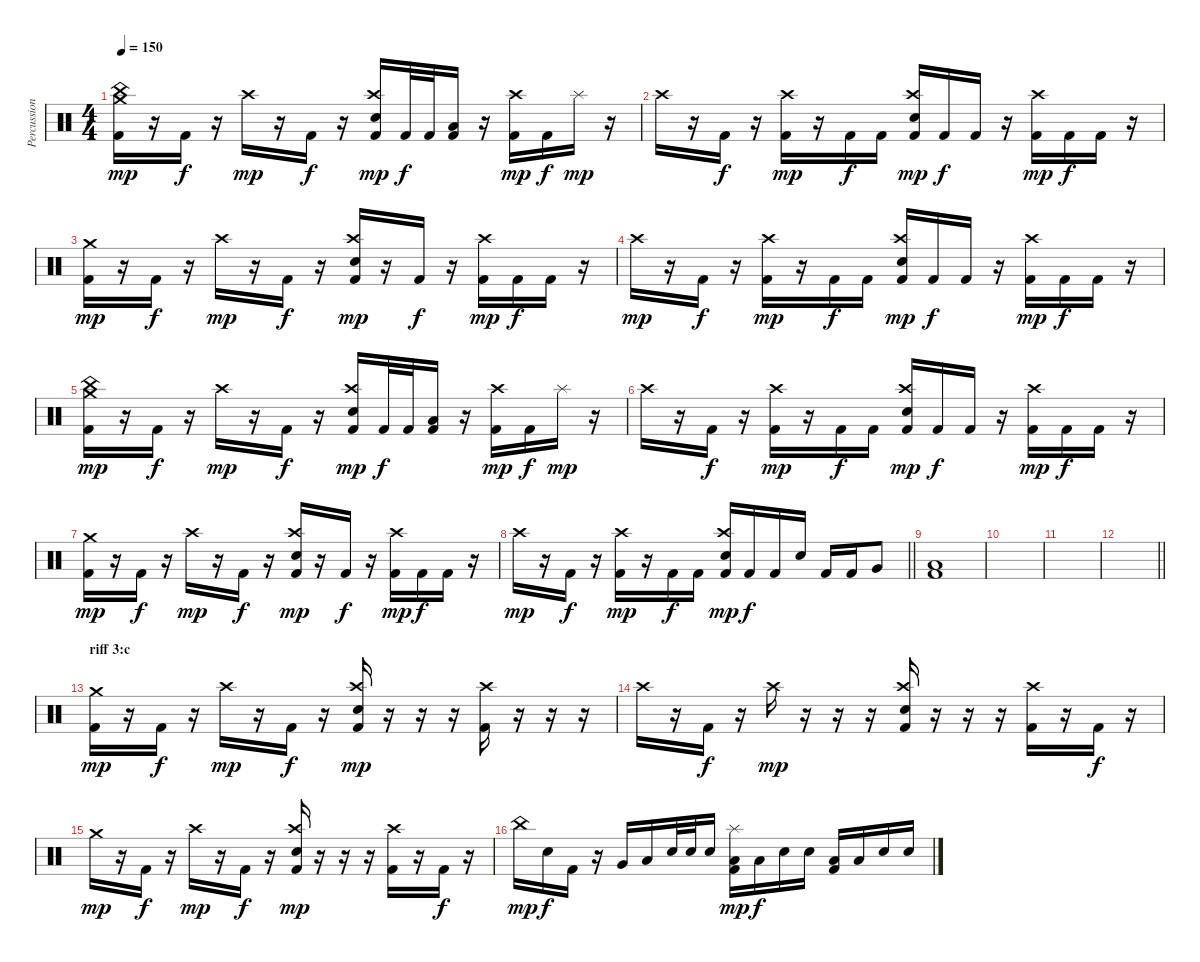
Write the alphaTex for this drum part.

\track ("Percussion" "Percussion") {instrument percussion}
\staff {score}
\articulation defaults
\ts (4 4)
\tempo 150
\clef neutral
\ks c
("Crash medium (hit)" "China (hit)" "Kick (hit) 2").16{dy mp} r.16 "Kick (hit) 2".16{dy f} r.16 "Crash high (hit)".16{dy mp} r.16 "Kick (hit) 2".16{dy f} r.16 ("Crash high (hit)" "Electric Snare (hit)" "Kick (hit) 2").16{dy mp} "Kick (hit) 2".32{dy f} "Kick (hit) 2".32 ("Low Floor Tom (hit)" "Kick (hit) 2").16 r.16 ("Crash high (hit)" "Kick (hit) 2").16{dy mp} "Kick (hit) 2".16{dy f} "Splash (hit)".16{dy mp} r.16 |
"Crash high (hit)".16 r.16 "Kick (hit) 2".16{dy f} r.16 ("Crash high (hit)" "Kick (hit) 2").16{dy mp} r.16 "Kick (hit) 2".16{dy f} "Kick (hit) 2".16 ("Crash high (hit)" "Electric Snare (hit)" "Kick (hit) 2").16{dy mp} "Kick (hit) 2".16{dy f} "Kick (hit) 2".16 r.16 ("Crash high (hit)" "Kick (hit) 2").16{dy mp} "Kick (hit) 2".16{dy f} "Kick (hit) 2".16 r.16 |
("Crash medium (hit)" "Kick (hit) 2").16{dy mp} r.16 "Kick (hit) 2".16{dy f} r.16 "Crash high (hit)".16{dy mp} r.16 "Kick (hit) 2".16{dy f} r.16 ("Crash high (hit)" "Electric Snare (hit)" "Kick (hit) 2").16{dy mp} r.16 "Kick (hit) 2".16{dy f} r.16 ("Crash high (hit)" "Kick (hit) 2").16{dy mp} "Kick (hit) 2".16{dy f} "Kick (hit) 2".16 r.16 |
"Crash high (hit)".16{dy mp} r.16 "Kick (hit) 2".16{dy f} r.16 ("Crash high (hit)" "Kick (hit) 2").16{dy mp} r.16 "Kick (hit) 2".16{dy f} "Kick (hit) 2".16 ("Crash high (hit)" "Electric Snare (hit)" "Kick (hit) 2").16{dy mp} "Kick (hit) 2".16{dy f} "Kick (hit) 2".16 r.16 ("Crash high (hit)" "Kick (hit) 2").16{dy mp} "Kick (hit) 2".16{dy f} "Kick (hit) 2".16 r.16 |
("Crash medium (hit)" "China (hit)" "Kick (hit) 2").16{dy mp} r.16 "Kick (hit) 2".16{dy f} r.16 "Crash high (hit)".16{dy mp} r.16 "Kick (hit) 2".16{dy f} r.16 ("Crash high (hit)" "Electric Snare (hit)" "Kick (hit) 2").16{dy mp} "Kick (hit) 2".32{dy f} "Kick (hit) 2".32 ("Low Floor Tom (hit)" "Kick (hit) 2").16 r.16 ("Crash high (hit)" "Kick (hit) 2").16{dy mp} "Kick (hit) 2".16{dy f} "Splash (hit)".16{dy mp} r.16 |
"Crash high (hit)".16 r.16 "Kick (hit) 2".16{dy f} r.16 ("Crash high (hit)" "Kick (hit) 2").16{dy mp} r.16 "Kick (hit) 2".16{dy f} "Kick (hit) 2".16 ("Crash high (hit)" "Electric Snare (hit)" "Kick (hit) 2").16{dy mp} "Kick (hit) 2".16{dy f} "Kick (hit) 2".16 r.16 ("Crash high (hit)" "Kick (hit) 2").16{dy mp} "Kick (hit) 2".16{dy f} "Kick (hit) 2".16 r.16 |
("Crash medium (hit)" "Kick (hit) 2").16{dy mp} r.16 "Kick (hit) 2".16{dy f} r.16 "Crash high (hit)".16{dy mp} r.16 "Kick (hit) 2".16{dy f} r.16 ("Crash high (hit)" "Electric Snare (hit)" "Kick (hit) 2").16{dy mp} r.16 "Kick (hit) 2".16{dy f} r.16 ("Crash high (hit)" "Kick (hit) 2").16{dy mp} "Kick (hit) 2".16{dy f} "Kick (hit) 2".16 r.16 |
\barLineRight lightlight "Crash high (hit)".16{dy mp}
r.16 "Kick (hit) 2".16{dy f} r.16 ("Crash high (hit)" "Kick (hit) 2").16{dy mp} r.16 "Kick (hit) 2".16{dy f} "Kick (hit) 2".16 ("Crash high (hit)" "Electric Snare (hit)" "Kick (hit) 2").16{dy mp} "Kick (hit) 2".16{dy f} "Kick (hit) 2".16 "Electric Snare (hit)".16 "Kick (hit) 2".16 "Kick (hit) 2".16 "Very Low Tom (hit)".8 |
("Low Floor Tom (hit)" "Kick (hit) 2").1 |
|
|
\barLineRight lightlight
|
\section ("" "riff 3:c")
("Crash medium (hit)" "Kick (hit) 2").16{dy mp} r.16 "Kick (hit) 2".16{dy f} r.16 "Crash high (hit)".16{dy mp} r.16 "Kick (hit) 2".16{dy f} r.16 ("Crash high (hit)" "Electric Snare (hit)" "Kick (hit) 2").16{dy mp} r.16 r.16 r.16 ("Crash high (hit)" "Kick (hit) 2").16 r.16 r.16 r.16 |
"Crash high (hit)".16 r.16 "Kick (hit) 2".16{dy f} r.16 "Crash high (hit)".16{dy mp} r.16 r.16 r.16 ("Crash high (hit)" "Electric Snare (hit)" "Kick (hit) 2").16 r.16 r.16 r.16 ("Crash high (hit)" "Kick (hit) 2").16 r.16 "Kick (hit) 2".16{dy f} r.16 |
"Crash medium (hit)".16{dy mp} r.16 "Kick (hit) 2".16{dy f} r.16 "Crash high (hit)".16{dy mp} r.16 "Kick (hit) 2".16{dy f} r.16 ("Crash high (hit)" "Electric Snare (hit)" "Kick (hit) 2").16{dy mp} r.16 r.16 r.16 ("Crash high (hit)" "Kick (hit) 2").16 r.16 "Kick (hit) 2".16{dy f} r.16 |
"China (hit)".16{dy mp} "Electric Snare (hit)".16{dy f} "Kick (hit) 2".16 r.16 "Very Low Tom (hit)".16 "Low Floor Tom (hit)".16 "Electric Snare (hit)".32 "Electric Snare (hit)".32 "Electric Snare (hit)".16 ("Splash (hit)" "Low Floor Tom (hit)" "Kick (hit) 2").16{dy mp} "Low Floor Tom (hit)".16{dy f} "Electric Snare (hit)".16 "Electric Snare (hit)".16 ("Low Floor Tom (hit)" "Kick (hit) 2").16 "Low Floor Tom (hit)".16 "Electric Snare (hit)".16 "Electric Snare (hit)".16
